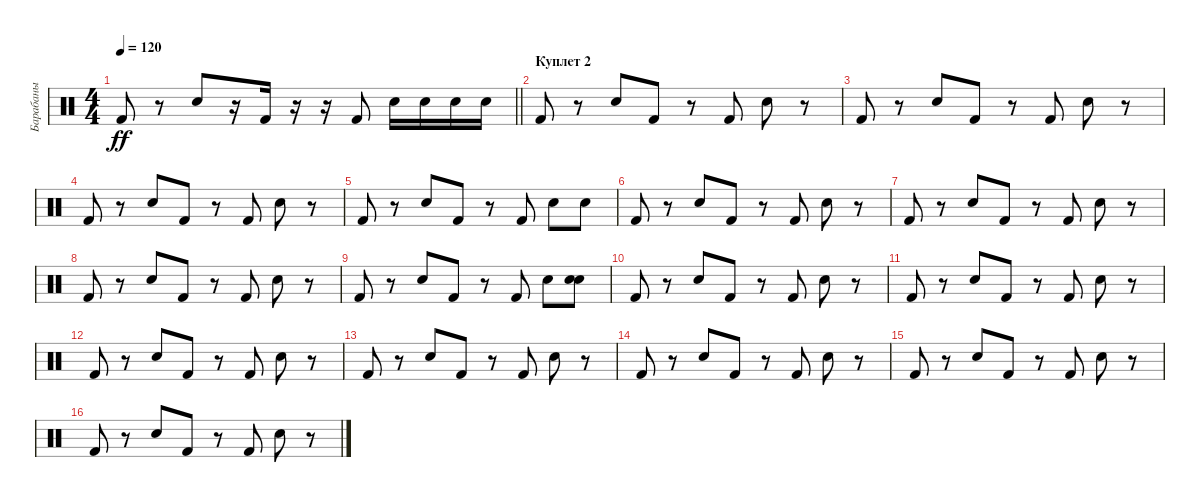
\track ("Барабаны" "Барабаны") {instrument percussion}
\staff {score}
\articulation defaults
\ts (4 4)
\tempo 120
\clef neutral
\barLineRight lightlight
\ks c "Kick (hit) 2".8{dy ff}
r.8 "Snare (hit) 2".8 r.16 "Kick (hit) 2".16 r.16 r.16 "Kick (hit) 2".8 "Electric Snare (hit)".16 "Electric Snare (hit)".16 "Electric Snare (hit)".16 "Electric Snare (hit)".16 |
\section ("" "Куплет 2")
"Kick (hit) 2".8 r.8 "Electric Snare (hit)".8 "Kick (hit) 2".8 r.8 "Kick (hit) 2".8 "Electric Snare (hit)".8 r.8 |
"Kick (hit) 2".8 r.8 "Electric Snare (hit)".8 "Kick (hit) 2".8 r.8 "Kick (hit) 2".8 "Electric Snare (hit)".8 r.8 |
"Kick (hit) 2".8 r.8 "Electric Snare (hit)".8 "Kick (hit) 2".8 r.8 "Kick (hit) 2".8 "Electric Snare (hit)".8 r.8 |
"Kick (hit) 2".8 r.8 "Electric Snare (hit)".8 "Kick (hit) 2".8 r.8 "Kick (hit) 2".8 "Electric Snare (hit)".8 "Snare (hit) 2".8 |
"Kick (hit) 2".8 r.8 "Electric Snare (hit)".8 "Kick (hit) 2".8 r.8 "Kick (hit) 2".8 "Electric Snare (hit)".8 r.8 |
"Kick (hit) 2".8 r.8 "Electric Snare (hit)".8 "Kick (hit) 2".8 r.8 "Kick (hit) 2".8 "Electric Snare (hit)".8 r.8 |
"Kick (hit) 2".8 r.8 "Electric Snare (hit)".8 "Kick (hit) 2".8 r.8 "Kick (hit) 2".8 "Electric Snare (hit)".8 r.8 |
"Kick (hit) 2".8 r.8 "Electric Snare (hit)".8 "Kick (hit) 2".8 r.8 "Kick (hit) 2".8 "Electric Snare (hit)".8 ("Snare (hit) 2" "Electric Snare (hit)").8 |
"Kick (hit) 2".8 r.8 "Electric Snare (hit)".8 "Kick (hit) 2".8 r.8 "Kick (hit) 2".8 "Electric Snare (hit)".8 r.8 |
"Kick (hit) 2".8 r.8 "Electric Snare (hit)".8 "Kick (hit) 2".8 r.8 "Kick (hit) 2".8 "Electric Snare (hit)".8 r.8 |
"Kick (hit) 2".8 r.8 "Electric Snare (hit)".8 "Kick (hit) 2".8 r.8 "Kick (hit) 2".8 "Electric Snare (hit)".8 r.8 |
"Kick (hit) 2".8 r.8 "Electric Snare (hit)".8 "Kick (hit) 2".8 r.8 "Kick (hit) 2".8 "Electric Snare (hit)".8 r.8 |
"Kick (hit) 2".8 r.8 "Electric Snare (hit)".8 "Kick (hit) 2".8 r.8 "Kick (hit) 2".8 "Electric Snare (hit)".8 r.8 |
"Kick (hit) 2".8 r.8 "Electric Snare (hit)".8 "Kick (hit) 2".8 r.8 "Kick (hit) 2".8 "Electric Snare (hit)".8 r.8 |
"Kick (hit) 2".8 r.8 "Electric Snare (hit)".8 "Kick (hit) 2".8 r.8 "Kick (hit) 2".8 "Electric Snare (hit)".8 r.8
